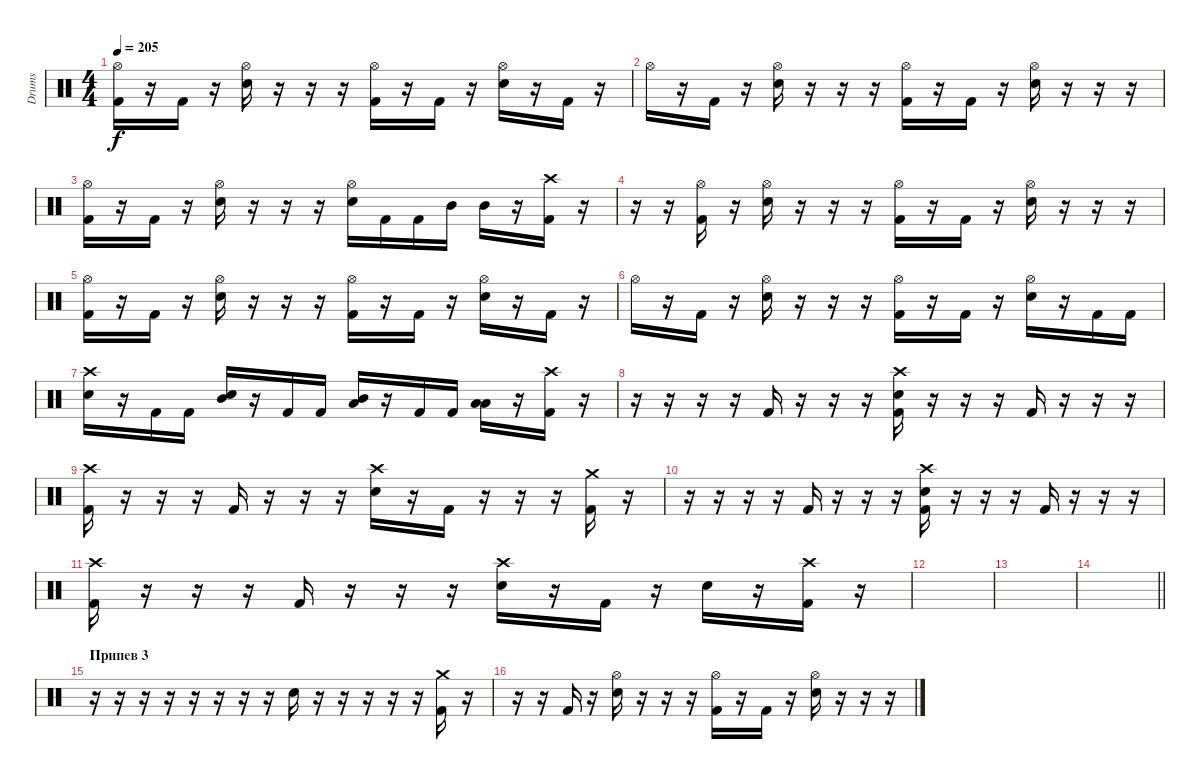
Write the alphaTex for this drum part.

\track ("Drums" "Drums") {instrument percussion}
\staff {score}
\articulation defaults
\ts (4 4)
\tempo 205
\clef neutral
\ks c
("Hi-Hat (open)" "Kick (hit) 2").16{dy f} r.16 "Kick (hit) 2".16 r.16 ("Hi-Hat (open)" "Electric Snare (hit)").16 r.16 r.16 r.16 ("Hi-Hat (open)" "Kick (hit) 2").16 r.16 "Kick (hit) 2".16 r.16 ("Hi-Hat (open)" "Electric Snare (hit)").16 r.16 "Kick (hit) 2".16 r.16 |
"Hi-Hat (open)".16 r.16 "Kick (hit) 2".16 r.16 ("Hi-Hat (open)" "Electric Snare (hit)").16 r.16 r.16 r.16 ("Hi-Hat (open)" "Kick (hit) 2").16 r.16 "Kick (hit) 2".16 r.16 ("Hi-Hat (open)" "Electric Snare (hit)").16 r.16 r.16 r.16 |
("Hi-Hat (open)" "Kick (hit) 2").16 r.16 "Kick (hit) 2".16 r.16 ("Hi-Hat (open)" "Electric Snare (hit)").16 r.16 r.16 r.16 ("Hi-Hat (open)" "Electric Snare (hit)").16 "Kick (hit) 2".16 "Kick (hit) 2".16 "Mid Tom (hit)".16 "Mid Tom (hit)".16 r.16 ("Crash high (hit)" "Kick (hit) 2").16 r.16 |
r.16 r.16 ("Hi-Hat (open)" "Kick (hit) 2").16 r.16 ("Hi-Hat (open)" "Electric Snare (hit)").16 r.16 r.16 r.16 ("Hi-Hat (open)" "Kick (hit) 2").16 r.16 "Kick (hit) 2".16 r.16 ("Hi-Hat (open)" "Electric Snare (hit)").16 r.16 r.16 r.16 |
("Hi-Hat (open)" "Kick (hit) 2").16 r.16 "Kick (hit) 2".16 r.16 ("Hi-Hat (open)" "Electric Snare (hit)").16 r.16 r.16 r.16 ("Hi-Hat (open)" "Kick (hit) 2").16 r.16 "Kick (hit) 2".16 r.16 ("Hi-Hat (open)" "Electric Snare (hit)").16 r.16 "Kick (hit) 2".16 r.16 |
"Hi-Hat (open)".16 r.16 "Kick (hit) 2".16 r.16 ("Hi-Hat (open)" "Electric Snare (hit)").16 r.16 r.16 r.16 ("Hi-Hat (open)" "Kick (hit) 2").16 r.16 "Kick (hit) 2".16 r.16 ("Hi-Hat (open)" "Electric Snare (hit)").16 r.16 "Kick (hit) 2".16 "Kick (hit) 2".16 |
("Crash high (hit)" "Electric Snare (hit)").16 r.16 "Kick (hit) 2".16 "Kick (hit) 2".16 ("Mid Tom (hit)" "Electric Snare (hit)").16 r.16 "Kick (hit) 2".16 "Kick (hit) 2".16 ("Mid Tom (hit)" "Low Tom (hit)").16 r.16 "Kick (hit) 2".16 "Kick (hit) 2".16 ("Low Tom (hit)" "Low Floor Tom (hit)").16 r.16 ("Crash high (hit)" "Kick (hit) 2").16 r.16 |
r.16 r.16 r.16 r.16 "Kick (hit) 2".16 r.16 r.16 r.16 ("Crash high (hit)" "Electric Snare (hit)" "Kick (hit) 2").16 r.16 r.16 r.16 "Kick (hit) 2".16 r.16 r.16 r.16 |
("Crash high (hit)" "Kick (hit) 2").16 r.16 r.16 r.16 "Kick (hit) 2".16 r.16 r.16 r.16 ("Crash high (hit)" "Electric Snare (hit)").16 r.16 "Kick (hit) 2".16 r.16 r.16 r.16 ("Crash medium (hit)" "Kick (hit) 2").16 r.16 |
r.16 r.16 r.16 r.16 "Kick (hit) 2".16 r.16 r.16 r.16 ("Crash high (hit)" "Electric Snare (hit)" "Kick (hit) 2").16 r.16 r.16 r.16 "Kick (hit) 2".16 r.16 r.16 r.16 |
("Crash high (hit)" "Kick (hit) 2").16 r.16 r.16 r.16 "Kick (hit) 2".16 r.16 r.16 r.16 ("Crash high (hit)" "Electric Snare (hit)").16 r.16 "Kick (hit) 2".16 r.16 "Electric Snare (hit)".16 r.16 ("Crash high (hit)" "Kick (hit) 2").16 r.16 |
|
|
\barLineRight lightlight
|
\section ("" "Припев 3")
r.16 r.16 r.16 r.16 r.16 r.16 r.16 r.16 "Electric Snare (hit)".16 r.16 r.16 r.16 r.16 r.16 ("Crash medium (hit)" "Kick (hit) 2").16 r.16 |
r.16 r.16 "Kick (hit) 2".16 r.16 ("Hi-Hat (open)" "Electric Snare (hit)").16 r.16 r.16 r.16 ("Hi-Hat (open)" "Kick (hit) 2").16 r.16 "Kick (hit) 2".16 r.16 ("Hi-Hat (open)" "Electric Snare (hit)").16 r.16 r.16 r.16
